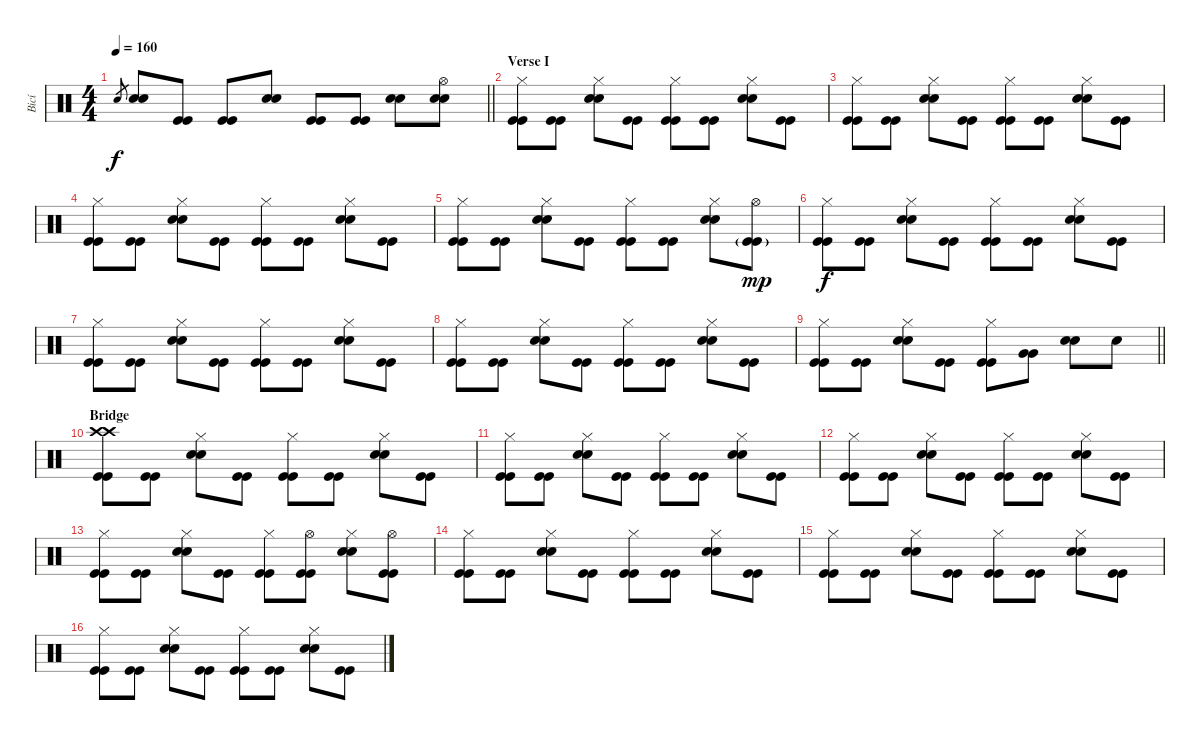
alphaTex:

\track ("Bicí" "Bicí") {instrument percussion}
\staff {score}
\articulation defaults
\ts (4 4)
\tempo 160
\clef neutral
\barLineRight lightlight
\ks c "Electric Snare (hit)".8{gr dy f}
("Electric Snare (hit)" "Electric Snare (hit)").8 ("Kick (hit)" "Kick (hit)").8 ("Kick (hit)" "Kick (hit)").8 ("Electric Snare (hit)" "Electric Snare (hit)").8 ("Kick (hit)" "Kick (hit)").8 ("Kick (hit)" "Kick (hit)").8 ("Electric Snare (hit)" "Electric Snare (hit)").8 ("Hi-Hat (open)" "Electric Snare (hit)" "Electric Snare (hit)").8 |
\section ("" "Verse I")
("Hi-Hat (closed)" "Kick (hit)" "Kick (hit)").8 ("Kick (hit)" "Kick (hit)").8 ("Hi-Hat (closed)" "Electric Snare (hit)" "Electric Snare (hit)").8 ("Kick (hit)" "Kick (hit)").8 ("Hi-Hat (closed)" "Kick (hit)" "Kick (hit)").8 ("Kick (hit)" "Kick (hit)").8 ("Hi-Hat (closed)" "Electric Snare (hit)" "Electric Snare (hit)").8 ("Kick (hit)" "Kick (hit)").8 |
("Hi-Hat (closed)" "Kick (hit)" "Kick (hit)").8 ("Kick (hit)" "Kick (hit)").8 ("Hi-Hat (closed)" "Electric Snare (hit)" "Electric Snare (hit)").8 ("Kick (hit)" "Kick (hit)").8 ("Hi-Hat (closed)" "Kick (hit)" "Kick (hit)").8 ("Kick (hit)" "Kick (hit)").8 ("Hi-Hat (closed)" "Electric Snare (hit)" "Electric Snare (hit)").8 ("Kick (hit)" "Kick (hit)").8 |
("Hi-Hat (closed)" "Kick (hit)" "Kick (hit)").8 ("Kick (hit)" "Kick (hit)").8 ("Hi-Hat (closed)" "Electric Snare (hit)" "Electric Snare (hit)").8 ("Kick (hit)" "Kick (hit)").8 ("Hi-Hat (closed)" "Kick (hit)" "Kick (hit)").8 ("Kick (hit)" "Kick (hit)").8 ("Hi-Hat (closed)" "Electric Snare (hit)" "Electric Snare (hit)").8 ("Kick (hit)" "Kick (hit)").8 |
("Hi-Hat (closed)" "Kick (hit)" "Kick (hit)").8 ("Kick (hit)" "Kick (hit)").8 ("Hi-Hat (closed)" "Electric Snare (hit)" "Electric Snare (hit)").8 ("Kick (hit)" "Kick (hit)").8 ("Hi-Hat (closed)" "Kick (hit)" "Kick (hit)").8 ("Kick (hit)" "Kick (hit)").8 ("Hi-Hat (closed)" "Electric Snare (hit)" "Electric Snare (hit)").8 ("Hi-Hat (open)" "Kick (hit)"{g} "Kick (hit)"{g}).8{dy mp} |
("Hi-Hat (closed)" "Kick (hit)" "Kick (hit)").8{dy f} ("Kick (hit)" "Kick (hit)").8 ("Hi-Hat (closed)" "Electric Snare (hit)" "Electric Snare (hit)").8 ("Kick (hit)" "Kick (hit)").8 ("Hi-Hat (closed)" "Kick (hit)" "Kick (hit)").8 ("Kick (hit)" "Kick (hit)").8 ("Hi-Hat (closed)" "Electric Snare (hit)" "Electric Snare (hit)").8 ("Kick (hit)" "Kick (hit)").8 |
("Hi-Hat (closed)" "Kick (hit)" "Kick (hit)").8 ("Kick (hit)" "Kick (hit)").8 ("Hi-Hat (closed)" "Electric Snare (hit)" "Electric Snare (hit)").8 ("Kick (hit)" "Kick (hit)").8 ("Hi-Hat (closed)" "Kick (hit)" "Kick (hit)").8 ("Kick (hit)" "Kick (hit)").8 ("Hi-Hat (closed)" "Electric Snare (hit)" "Electric Snare (hit)").8 ("Kick (hit)" "Kick (hit)").8 |
("Hi-Hat (closed)" "Kick (hit)" "Kick (hit)").8 ("Kick (hit)" "Kick (hit)").8 ("Hi-Hat (closed)" "Electric Snare (hit)" "Electric Snare (hit)").8 ("Kick (hit)" "Kick (hit)").8 ("Hi-Hat (closed)" "Kick (hit)" "Kick (hit)").8 ("Kick (hit)" "Kick (hit)").8 ("Hi-Hat (closed)" "Electric Snare (hit)" "Electric Snare (hit)").8 ("Kick (hit)" "Kick (hit)").8 |
\barLineRight lightlight
("Hi-Hat (closed)" "Kick (hit)" "Kick (hit)").8 ("Kick (hit)" "Kick (hit)").8 ("Hi-Hat (closed)" "Electric Snare (hit)" "Electric Snare (hit)").8 ("Kick (hit)" "Kick (hit)").8 ("Hi-Hat (closed)" "Kick (hit)" "Kick (hit)").8 ("Very Low Tom (hit)" "Very Low Tom (hit)").8 ("Electric Snare (hit)" "Electric Snare (hit)").8 "Snare (hit)".8 |
\section ("" "Bridge")
("Crash high (hit)" "Crash high (hit)" "Kick (hit)" "Kick (hit)").8 ("Kick (hit)" "Kick (hit)").8 ("Hi-Hat (closed)" "Electric Snare (hit)" "Electric Snare (hit)").8 ("Kick (hit)" "Kick (hit)").8 ("Hi-Hat (closed)" "Kick (hit)" "Kick (hit)").8 ("Kick (hit)" "Kick (hit)").8 ("Hi-Hat (closed)" "Electric Snare (hit)" "Electric Snare (hit)").8 ("Kick (hit)" "Kick (hit)").8 |
("Hi-Hat (closed)" "Kick (hit)" "Kick (hit)").8 ("Kick (hit)" "Kick (hit)").8 ("Hi-Hat (closed)" "Electric Snare (hit)" "Electric Snare (hit)").8 ("Kick (hit)" "Kick (hit)").8 ("Hi-Hat (closed)" "Kick (hit)" "Kick (hit)").8 ("Kick (hit)" "Kick (hit)").8 ("Hi-Hat (closed)" "Electric Snare (hit)" "Electric Snare (hit)").8 ("Kick (hit)" "Kick (hit)").8 |
("Hi-Hat (closed)" "Kick (hit)" "Kick (hit)").8 ("Kick (hit)" "Kick (hit)").8 ("Hi-Hat (closed)" "Electric Snare (hit)" "Electric Snare (hit)").8 ("Kick (hit)" "Kick (hit)").8 ("Hi-Hat (closed)" "Kick (hit)" "Kick (hit)").8 ("Kick (hit)" "Kick (hit)").8 ("Hi-Hat (closed)" "Electric Snare (hit)" "Electric Snare (hit)").8 ("Kick (hit)" "Kick (hit)").8 |
("Hi-Hat (closed)" "Kick (hit)" "Kick (hit)").8 ("Kick (hit)" "Kick (hit)").8 ("Hi-Hat (closed)" "Electric Snare (hit)" "Electric Snare (hit)").8 ("Kick (hit)" "Kick (hit)").8 ("Hi-Hat (closed)" "Kick (hit)" "Kick (hit)").8 ("Hi-Hat (open)" "Kick (hit)" "Kick (hit)").8 ("Hi-Hat (closed)" "Electric Snare (hit)" "Electric Snare (hit)").8 ("Hi-Hat (open)" "Kick (hit)" "Kick (hit)").8 |
("Hi-Hat (closed)" "Kick (hit)" "Kick (hit)").8 ("Kick (hit)" "Kick (hit)").8 ("Hi-Hat (closed)" "Electric Snare (hit)" "Electric Snare (hit)").8 ("Kick (hit)" "Kick (hit)").8 ("Hi-Hat (closed)" "Kick (hit)" "Kick (hit)").8 ("Kick (hit)" "Kick (hit)").8 ("Hi-Hat (closed)" "Electric Snare (hit)" "Electric Snare (hit)").8 ("Kick (hit)" "Kick (hit)").8 |
("Hi-Hat (closed)" "Kick (hit)" "Kick (hit)").8 ("Kick (hit)" "Kick (hit)").8 ("Hi-Hat (closed)" "Electric Snare (hit)" "Electric Snare (hit)").8 ("Kick (hit)" "Kick (hit)").8 ("Hi-Hat (closed)" "Kick (hit)" "Kick (hit)").8 ("Kick (hit)" "Kick (hit)").8 ("Hi-Hat (closed)" "Electric Snare (hit)" "Electric Snare (hit)").8 ("Kick (hit)" "Kick (hit)").8 |
("Hi-Hat (closed)" "Kick (hit)" "Kick (hit)").8 ("Kick (hit)" "Kick (hit)").8 ("Hi-Hat (closed)" "Electric Snare (hit)" "Electric Snare (hit)").8 ("Kick (hit)" "Kick (hit)").8 ("Hi-Hat (closed)" "Kick (hit)" "Kick (hit)").8 ("Kick (hit)" "Kick (hit)").8 ("Hi-Hat (closed)" "Electric Snare (hit)" "Electric Snare (hit)").8 ("Kick (hit)" "Kick (hit)").8
